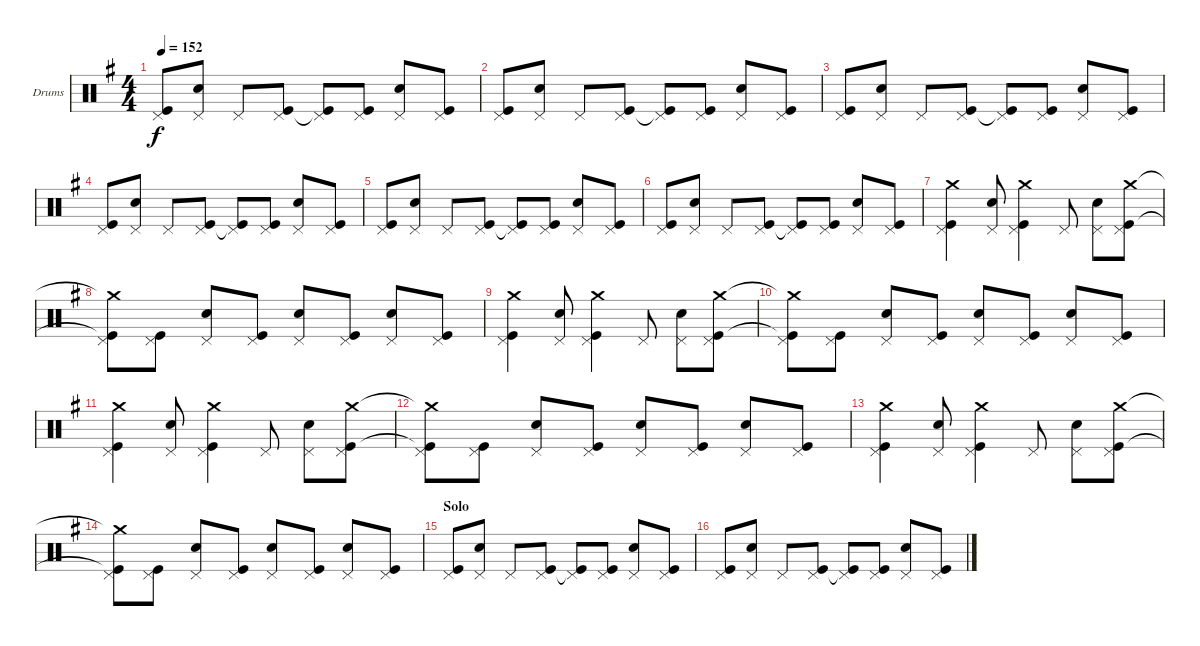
\defaultSystemsLayout 4
\bracketExtendMode groupsimilarinstruments
\firstSystemTrackNameOrientation horizontal
\otherSystemsTrackNameOrientation horizontal
\track ("Drumkit" "Drums") {instrument percussion}
\staff {score}
\articulation defaults
\ts (4 4)
\tempo 152
\clef neutral
\scale
0.957125
\ks g
("Kick (hit)" "Pedal Hi-Hat (hit)").8{dy f} ("Snare (hit) 2" "Pedal Hi-Hat (hit)").8 "Pedal Hi-Hat (hit)".8 ("Kick (hit)" "Pedal Hi-Hat (hit)").8 ("Kick (hit)"{t} "Pedal Hi-Hat (hit)").8 ("Kick (hit)" "Pedal Hi-Hat (hit)").8 ("Snare (hit) 2" "Pedal Hi-Hat (hit)").8 ("Kick (hit)" "Pedal Hi-Hat (hit)").8 |
\scale
1.08575 ("Kick (hit)" "Pedal Hi-Hat (hit)").8 ("Snare (hit) 2" "Pedal Hi-Hat (hit)").8 "Pedal Hi-Hat (hit)".8 ("Kick (hit)" "Pedal Hi-Hat (hit)").8 ("Kick (hit)"{t} "Pedal Hi-Hat (hit)").8 ("Kick (hit)" "Pedal Hi-Hat (hit)").8 ("Snare (hit) 2" "Pedal Hi-Hat (hit)").8 ("Kick (hit)" "Pedal Hi-Hat (hit)").8 |
\scale
0.957125 ("Kick (hit)" "Pedal Hi-Hat (hit)").8 ("Snare (hit) 2" "Pedal Hi-Hat (hit)").8 "Pedal Hi-Hat (hit)".8 ("Kick (hit)" "Pedal Hi-Hat (hit)").8 ("Kick (hit)"{t} "Pedal Hi-Hat (hit)").8 ("Kick (hit)" "Pedal Hi-Hat (hit)").8 ("Snare (hit) 2" "Pedal Hi-Hat (hit)").8 ("Kick (hit)" "Pedal Hi-Hat (hit)").8 |
\scale
0.957125 ("Kick (hit)" "Pedal Hi-Hat (hit)").8 ("Snare (hit) 2" "Pedal Hi-Hat (hit)").8 "Pedal Hi-Hat (hit)".8 ("Kick (hit)" "Pedal Hi-Hat (hit)").8 ("Kick (hit)"{t} "Pedal Hi-Hat (hit)").8 ("Kick (hit)" "Pedal Hi-Hat (hit)").8 ("Snare (hit) 2" "Pedal Hi-Hat (hit)").8 ("Kick (hit)" "Pedal Hi-Hat (hit)").8 |
\scale
1.08575 ("Kick (hit)" "Pedal Hi-Hat (hit)").8 ("Snare (hit) 2" "Pedal Hi-Hat (hit)").8 "Pedal Hi-Hat (hit)".8 ("Kick (hit)" "Pedal Hi-Hat (hit)").8 ("Kick (hit)"{t} "Pedal Hi-Hat (hit)").8 ("Kick (hit)" "Pedal Hi-Hat (hit)").8 ("Snare (hit) 2" "Pedal Hi-Hat (hit)").8 ("Kick (hit)" "Pedal Hi-Hat (hit)").8 |
\scale
0.957125 ("Kick (hit)" "Pedal Hi-Hat (hit)").8 ("Snare (hit) 2" "Pedal Hi-Hat (hit)").8 "Pedal Hi-Hat (hit)".8 ("Kick (hit)" "Pedal Hi-Hat (hit)").8 ("Kick (hit)"{t} "Pedal Hi-Hat (hit)").8 ("Kick (hit)" "Pedal Hi-Hat (hit)").8 ("Snare (hit) 2" "Pedal Hi-Hat (hit)").8 ("Kick (hit)" "Pedal Hi-Hat (hit)").8 |
\scale
0.957125 ("Kick (hit)" "Crash medium (hit)" "Pedal Hi-Hat (hit)").4 ("Snare (hit) 2" "Pedal Hi-Hat (hit)").8 ("Kick (hit)" "Crash medium (hit)" "Pedal Hi-Hat (hit)").4 "Pedal Hi-Hat (hit)".8 ("Snare (hit) 2" "Pedal Hi-Hat (hit)").8 ("Kick (hit)" "Crash medium (hit)" "Pedal Hi-Hat (hit)").8 |
\scale
1.08575 ("Kick (hit)"{t} "Crash medium (hit)"{t} "Pedal Hi-Hat (hit)").8 ("Kick (hit)" "Pedal Hi-Hat (hit)").8 ("Snare (hit) 2" "Pedal Hi-Hat (hit)").8 ("Kick (hit)" "Pedal Hi-Hat (hit)").8 ("Snare (hit) 2" "Pedal Hi-Hat (hit)").8 ("Kick (hit)" "Pedal Hi-Hat (hit)").8 ("Snare (hit) 2" "Pedal Hi-Hat (hit)").8 ("Kick (hit)" "Pedal Hi-Hat (hit)").8 |
\scale
0.957125 ("Kick (hit)" "Crash medium (hit)" "Pedal Hi-Hat (hit)").4 ("Snare (hit) 2" "Pedal Hi-Hat (hit)").8 ("Kick (hit)" "Crash medium (hit)" "Pedal Hi-Hat (hit)").4 "Pedal Hi-Hat (hit)".8 ("Snare (hit) 2" "Pedal Hi-Hat (hit)").8 ("Kick (hit)" "Crash medium (hit)" "Pedal Hi-Hat (hit)").8 |
\scale
0.957125 ("Kick (hit)"{t} "Crash medium (hit)"{t} "Pedal Hi-Hat (hit)").8 ("Kick (hit)" "Pedal Hi-Hat (hit)").8 ("Snare (hit) 2" "Pedal Hi-Hat (hit)").8 ("Kick (hit)" "Pedal Hi-Hat (hit)").8 ("Snare (hit) 2" "Pedal Hi-Hat (hit)").8 ("Kick (hit)" "Pedal Hi-Hat (hit)").8 ("Snare (hit) 2" "Pedal Hi-Hat (hit)").8 ("Kick (hit)" "Pedal Hi-Hat (hit)").8 |
\scale
1.08575 ("Kick (hit)" "Crash medium (hit)" "Pedal Hi-Hat (hit)").4 ("Snare (hit) 2" "Pedal Hi-Hat (hit)").8 ("Kick (hit)" "Crash medium (hit)" "Pedal Hi-Hat (hit)").4 "Pedal Hi-Hat (hit)".8 ("Snare (hit) 2" "Pedal Hi-Hat (hit)").8 ("Kick (hit)" "Crash medium (hit)" "Pedal Hi-Hat (hit)").8 |
\scale
0.957125 ("Kick (hit)"{t} "Crash medium (hit)"{t} "Pedal Hi-Hat (hit)").8 ("Kick (hit)" "Pedal Hi-Hat (hit)").8 ("Snare (hit) 2" "Pedal Hi-Hat (hit)").8 ("Kick (hit)" "Pedal Hi-Hat (hit)").8 ("Snare (hit) 2" "Pedal Hi-Hat (hit)").8 ("Kick (hit)" "Pedal Hi-Hat (hit)").8 ("Snare (hit) 2" "Pedal Hi-Hat (hit)").8 ("Kick (hit)" "Pedal Hi-Hat (hit)").8 |
\scale
0.957125 ("Kick (hit)" "Crash medium (hit)" "Pedal Hi-Hat (hit)").4 ("Snare (hit) 2" "Pedal Hi-Hat (hit)").8 ("Kick (hit)" "Crash medium (hit)" "Pedal Hi-Hat (hit)").4 "Pedal Hi-Hat (hit)".8 ("Snare (hit) 2" "Pedal Hi-Hat (hit)").8 ("Kick (hit)" "Crash medium (hit)" "Pedal Hi-Hat (hit)").8 |
\scale
1.08575 ("Kick (hit)"{t} "Crash medium (hit)"{t} "Pedal Hi-Hat (hit)").8 ("Kick (hit)" "Pedal Hi-Hat (hit)").8 ("Snare (hit) 2" "Pedal Hi-Hat (hit)").8 ("Kick (hit)" "Pedal Hi-Hat (hit)").8 ("Snare (hit) 2" "Pedal Hi-Hat (hit)").8 ("Kick (hit)" "Pedal Hi-Hat (hit)").8 ("Snare (hit) 2" "Pedal Hi-Hat (hit)").8 ("Kick (hit)" "Pedal Hi-Hat (hit)").8 |
\section ("" "Solo")
\scale
0.957125 ("Kick (hit)" "Pedal Hi-Hat (hit)").8 ("Snare (hit) 2" "Pedal Hi-Hat (hit)").8 "Pedal Hi-Hat (hit)".8 ("Kick (hit)" "Pedal Hi-Hat (hit)").8 ("Kick (hit)"{t} "Pedal Hi-Hat (hit)").8 ("Kick (hit)" "Pedal Hi-Hat (hit)").8 ("Snare (hit) 2" "Pedal Hi-Hat (hit)").8 ("Kick (hit)" "Pedal Hi-Hat (hit)").8 |
\scale
0.957125 ("Kick (hit)" "Pedal Hi-Hat (hit)").8 ("Snare (hit) 2" "Pedal Hi-Hat (hit)").8 "Pedal Hi-Hat (hit)".8 ("Kick (hit)" "Pedal Hi-Hat (hit)").8 ("Kick (hit)"{t} "Pedal Hi-Hat (hit)").8 ("Kick (hit)" "Pedal Hi-Hat (hit)").8 ("Snare (hit) 2" "Pedal Hi-Hat (hit)").8 ("Kick (hit)" "Pedal Hi-Hat (hit)").8
